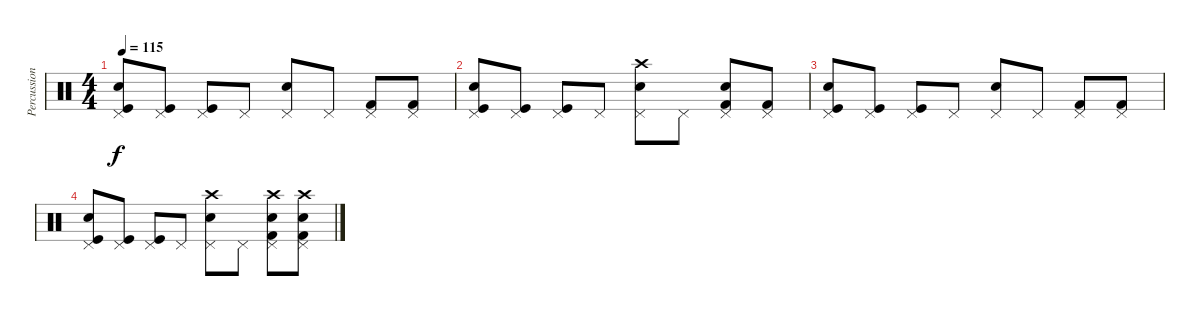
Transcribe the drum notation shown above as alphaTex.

\track ("Percussion" "Percussion") {mute instrument percussion}
\staff {score}
\articulation defaults
\ts (4 4)
\tempo 115
\clef neutral
\ks c
("Kick (hit)" "Pedal Hi-Hat (hit)" "Electric Snare (hit)").8{dy f} ("Kick (hit)" "Pedal Hi-Hat (hit)").8 ("Kick (hit)" "Pedal Hi-Hat (hit)").8 "Pedal Hi-Hat (hit)".8 ("Pedal Hi-Hat (hit)" "Electric Snare (hit)").8 "Pedal Hi-Hat (hit)".8 ("Kick (hit) 2" "Pedal Hi-Hat (hit)").8 ("Kick (hit) 2" "Pedal Hi-Hat (hit)").8 |
("Kick (hit)" "Pedal Hi-Hat (hit)" "Electric Snare (hit)").8 ("Kick (hit)" "Pedal Hi-Hat (hit)").8 ("Kick (hit)" "Pedal Hi-Hat (hit)").8 "Pedal Hi-Hat (hit)".8 ("Pedal Hi-Hat (hit)" "Electric Snare (hit)" "Crash high (hit)").8 "Pedal Hi-Hat (hit)".8 ("Kick (hit) 2" "Pedal Hi-Hat (hit)" "Electric Snare (hit)").8 ("Kick (hit) 2" "Pedal Hi-Hat (hit)").8 |
("Kick (hit)" "Pedal Hi-Hat (hit)" "Electric Snare (hit)").8 ("Kick (hit)" "Pedal Hi-Hat (hit)").8 ("Kick (hit)" "Pedal Hi-Hat (hit)").8 "Pedal Hi-Hat (hit)".8 ("Pedal Hi-Hat (hit)" "Electric Snare (hit)").8 "Pedal Hi-Hat (hit)".8 ("Kick (hit) 2" "Pedal Hi-Hat (hit)").8 ("Kick (hit) 2" "Pedal Hi-Hat (hit)").8 |
("Kick (hit)" "Pedal Hi-Hat (hit)" "Electric Snare (hit)").8 ("Kick (hit)" "Pedal Hi-Hat (hit)").8 ("Kick (hit)" "Pedal Hi-Hat (hit)").8 "Pedal Hi-Hat (hit)".8 ("Pedal Hi-Hat (hit)" "Electric Snare (hit)" "Crash high (hit)").8 "Pedal Hi-Hat (hit)".8 ("Kick (hit) 2" "Pedal Hi-Hat (hit)" "Electric Snare (hit)" "Crash high (hit)").8 ("Kick (hit) 2" "Pedal Hi-Hat (hit)" "Electric Snare (hit)" "Crash high (hit)").8
